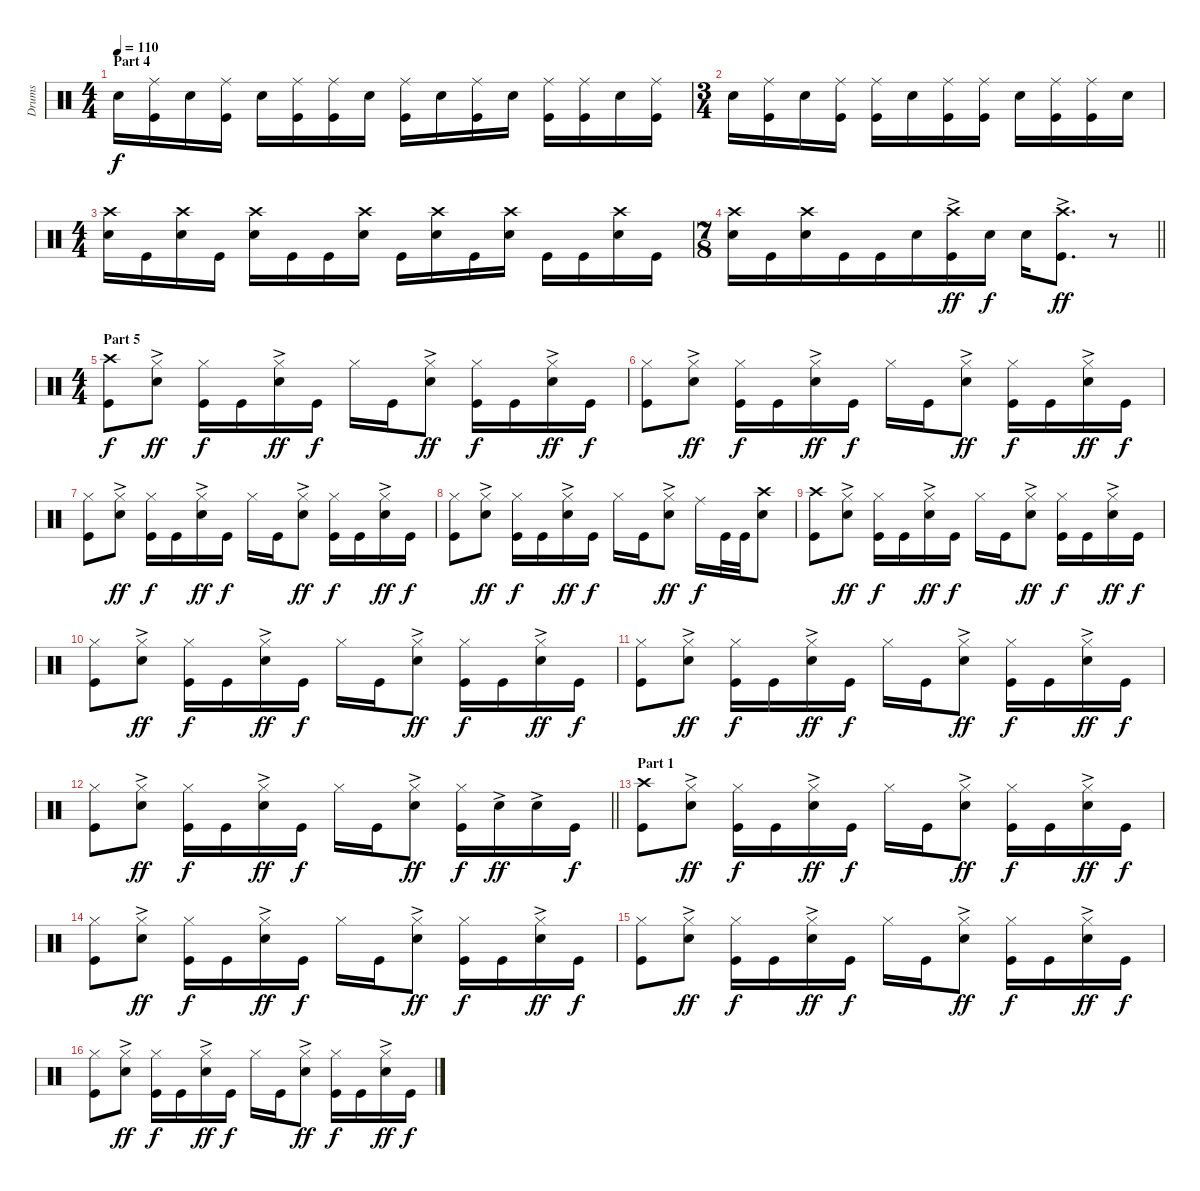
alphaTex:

\track ("Drums" "Drums") {instrument percussion}
\staff {score}
\articulation defaults
\ts (4 4)
\section ("" "Part 4")
\tempo 110
\clef neutral
\ks c "Electric Snare (hit)".16{dy f}
("Kick (hit)" "Ride (middle)").16 "Electric Snare (hit)".16 ("Kick (hit)" "Ride (middle)").16 "Electric Snare (hit)".16 ("Kick (hit)" "Ride (middle)").16 ("Kick (hit)" "Ride (middle)").16 "Electric Snare (hit)".16 ("Kick (hit)" "Ride (middle)").16 "Electric Snare (hit)".16 ("Kick (hit)" "Ride (middle)").16 "Electric Snare (hit)".16 ("Kick (hit)" "Ride (middle)").16 ("Kick (hit)" "Ride (middle)").16 "Electric Snare (hit)".16 ("Kick (hit)" "Ride (middle)").16 |
\ts (3 4)
"Electric Snare (hit)".16 ("Kick (hit)" "Ride (middle)").16 "Electric Snare (hit)".16 ("Kick (hit)" "Ride (middle)").16 ("Kick (hit)" "Ride (middle)").16 "Electric Snare (hit)".16 ("Kick (hit)" "Ride (middle)").16 ("Kick (hit)" "Ride (middle)").16 "Electric Snare (hit)".16 ("Kick (hit)" "Ride (middle)").16 ("Kick (hit)" "Ride (middle)").16 "Electric Snare (hit)".16 |
\ts (4 4)
("Electric Snare (hit)" "Crash high (hit)").16 "Kick (hit)".16 ("Crash high (hit)" "Electric Snare (hit)").16 "Kick (hit)".16 ("Electric Snare (hit)" "Crash high (hit)").16 "Kick (hit)".16 "Kick (hit)".16 ("Electric Snare (hit)" "Crash high (hit)").16 "Kick (hit)".16 ("Crash high (hit)" "Electric Snare (hit)").16 "Kick (hit)".16 ("Electric Snare (hit)" "Crash high (hit)").16 "Kick (hit)".16 "Kick (hit)".16 ("Electric Snare (hit)" "Crash high (hit)").16 "Kick (hit)".16 |
\ts (7 8)
\barLineRight lightlight
("Crash high (hit)" "Electric Snare (hit)").16 "Kick (hit)".16 ("Electric Snare (hit)" "Crash high (hit)").16 "Kick (hit)".16 "Kick (hit)".16 "Electric Snare (hit)".16 ("Kick (hit)" "Crash high (hit)"{ac}).16{dy ff} "Electric Snare (hit)".16{dy f} "Electric Snare (hit)".16 ("Kick (hit)" "Crash high (hit)"{ac}).8{d dy ff} r.8 |
\ts (4 4)
\section ("" "Part 5")
("Kick (hit)" "Crash high (hit)").8{dy f} ("Hi-Hat (closed)" "Electric Snare (hit)"{ac}).8{dy ff} ("Hi-Hat (closed)" "Kick (hit)").16{dy f} "Kick (hit)".16 ("Hi-Hat (closed)" "Electric Snare (hit)"{ac}).16{dy ff} "Kick (hit)".16{dy f} "Hi-Hat (closed)".16 "Kick (hit)".16 ("Electric Snare (hit)"{ac} "Hi-Hat (closed)").8{dy ff} ("Kick (hit)" "Hi-Hat (closed)").16{dy f} "Kick (hit)".16 ("Electric Snare (hit)"{ac} "Hi-Hat (closed)").16{dy ff} "Kick (hit)".16{dy f} |
("Kick (hit)" "Hi-Hat (closed)").8 ("Hi-Hat (closed)" "Electric Snare (hit)"{ac}).8{dy ff} ("Hi-Hat (closed)" "Kick (hit)").16{dy f} "Kick (hit)".16 ("Hi-Hat (closed)" "Electric Snare (hit)"{ac}).16{dy ff} "Kick (hit)".16{dy f} "Hi-Hat (closed)".16 "Kick (hit)".16 ("Electric Snare (hit)"{ac} "Hi-Hat (closed)").8{dy ff} ("Kick (hit)" "Hi-Hat (closed)").16{dy f} "Kick (hit)".16 ("Electric Snare (hit)"{ac} "Hi-Hat (closed)").16{dy ff} "Kick (hit)".16{dy f} |
("Kick (hit)" "Hi-Hat (closed)").8 ("Hi-Hat (closed)" "Electric Snare (hit)"{ac}).8{dy ff} ("Hi-Hat (closed)" "Kick (hit)").16{dy f} "Kick (hit)".16 ("Hi-Hat (closed)" "Electric Snare (hit)"{ac}).16{dy ff} "Kick (hit)".16{dy f} "Hi-Hat (closed)".16 "Kick (hit)".16 ("Electric Snare (hit)"{ac} "Hi-Hat (closed)").8{dy ff} ("Kick (hit)" "Hi-Hat (closed)").16{dy f} "Kick (hit)".16 ("Electric Snare (hit)"{ac} "Hi-Hat (closed)").16{dy ff} "Kick (hit)".16{dy f} |
("Kick (hit)" "Hi-Hat (closed)").8 ("Hi-Hat (closed)" "Electric Snare (hit)"{ac}).8{dy ff} ("Hi-Hat (closed)" "Kick (hit)").16{dy f} "Kick (hit)".16 ("Hi-Hat (closed)" "Electric Snare (hit)"{ac}).16{dy ff} "Kick (hit)".16{dy f} "Hi-Hat (closed)".16 "Kick (hit)".16 ("Electric Snare (hit)"{ac} "Hi-Hat (closed)").8{dy ff} "Ride (middle)".16{dy f} "Kick (hit)".32 "Kick (hit)".32 ("Electric Snare (hit)" "Crash high (hit)").8 |
("Kick (hit)" "Crash high (hit)").8 ("Hi-Hat (closed)" "Electric Snare (hit)"{ac}).8{dy ff} ("Hi-Hat (closed)" "Kick (hit)").16{dy f} "Kick (hit)".16 ("Hi-Hat (closed)" "Electric Snare (hit)"{ac}).16{dy ff} "Kick (hit)".16{dy f} "Hi-Hat (closed)".16 "Kick (hit)".16 ("Electric Snare (hit)"{ac} "Hi-Hat (closed)").8{dy ff} ("Kick (hit)" "Hi-Hat (closed)").16{dy f} "Kick (hit)".16 ("Electric Snare (hit)"{ac} "Hi-Hat (closed)").16{dy ff} "Kick (hit)".16{dy f} |
("Kick (hit)" "Hi-Hat (closed)").8 ("Hi-Hat (closed)" "Electric Snare (hit)"{ac}).8{dy ff} ("Hi-Hat (closed)" "Kick (hit)").16{dy f} "Kick (hit)".16 ("Hi-Hat (closed)" "Electric Snare (hit)"{ac}).16{dy ff} "Kick (hit)".16{dy f} "Hi-Hat (closed)".16 "Kick (hit)".16 ("Electric Snare (hit)"{ac} "Hi-Hat (closed)").8{dy ff} ("Kick (hit)" "Hi-Hat (closed)").16{dy f} "Kick (hit)".16 ("Electric Snare (hit)"{ac} "Hi-Hat (closed)").16{dy ff} "Kick (hit)".16{dy f} |
("Kick (hit)" "Hi-Hat (closed)").8 ("Hi-Hat (closed)" "Electric Snare (hit)"{ac}).8{dy ff} ("Hi-Hat (closed)" "Kick (hit)").16{dy f} "Kick (hit)".16 ("Hi-Hat (closed)" "Electric Snare (hit)"{ac}).16{dy ff} "Kick (hit)".16{dy f} "Hi-Hat (closed)".16 "Kick (hit)".16 ("Electric Snare (hit)"{ac} "Hi-Hat (closed)").8{dy ff} ("Kick (hit)" "Hi-Hat (closed)").16{dy f} "Kick (hit)".16 ("Electric Snare (hit)"{ac} "Hi-Hat (closed)").16{dy ff} "Kick (hit)".16{dy f} |
\barLineRight lightlight
("Kick (hit)" "Hi-Hat (closed)").8 ("Hi-Hat (closed)" "Electric Snare (hit)"{ac}).8{dy ff} ("Hi-Hat (closed)" "Kick (hit)").16{dy f} "Kick (hit)".16 ("Hi-Hat (closed)" "Electric Snare (hit)"{ac}).16{dy ff} "Kick (hit)".16{dy f} "Hi-Hat (closed)".16 "Kick (hit)".16 ("Electric Snare (hit)"{ac} "Hi-Hat (closed)").8{dy ff} ("Kick (hit)" "Hi-Hat (closed)").16{dy f} "Electric Snare (hit)"{ac}.16{dy ff} "Electric Snare (hit)"{ac}.16 "Kick (hit)".16{dy f} |
\section ("" "Part 1")
("Kick (hit)" "Crash high (hit)").8 ("Hi-Hat (closed)" "Electric Snare (hit)"{ac}).8{dy ff} ("Hi-Hat (closed)" "Kick (hit)").16{dy f} "Kick (hit)".16 ("Hi-Hat (closed)" "Electric Snare (hit)"{ac}).16{dy ff} "Kick (hit)".16{dy f} "Hi-Hat (closed)".16 "Kick (hit)".16 ("Electric Snare (hit)"{ac} "Hi-Hat (closed)").8{dy ff} ("Kick (hit)" "Hi-Hat (closed)").16{dy f} "Kick (hit)".16 ("Electric Snare (hit)"{ac} "Hi-Hat (closed)").16{dy ff} "Kick (hit)".16{dy f} |
("Kick (hit)" "Hi-Hat (closed)").8 ("Hi-Hat (closed)" "Electric Snare (hit)"{ac}).8{dy ff} ("Hi-Hat (closed)" "Kick (hit)").16{dy f} "Kick (hit)".16 ("Hi-Hat (closed)" "Electric Snare (hit)"{ac}).16{dy ff} "Kick (hit)".16{dy f} "Hi-Hat (closed)".16 "Kick (hit)".16 ("Electric Snare (hit)"{ac} "Hi-Hat (closed)").8{dy ff} ("Kick (hit)" "Hi-Hat (closed)").16{dy f} "Kick (hit)".16 ("Electric Snare (hit)"{ac} "Hi-Hat (closed)").16{dy ff} "Kick (hit)".16{dy f} |
("Kick (hit)" "Hi-Hat (closed)").8 ("Hi-Hat (closed)" "Electric Snare (hit)"{ac}).8{dy ff} ("Hi-Hat (closed)" "Kick (hit)").16{dy f} "Kick (hit)".16 ("Hi-Hat (closed)" "Electric Snare (hit)"{ac}).16{dy ff} "Kick (hit)".16{dy f} "Hi-Hat (closed)".16 "Kick (hit)".16 ("Electric Snare (hit)"{ac} "Hi-Hat (closed)").8{dy ff} ("Kick (hit)" "Hi-Hat (closed)").16{dy f} "Kick (hit)".16 ("Electric Snare (hit)"{ac} "Hi-Hat (closed)").16{dy ff} "Kick (hit)".16{dy f} |
("Kick (hit)" "Hi-Hat (closed)").8 ("Hi-Hat (closed)" "Electric Snare (hit)"{ac}).8{dy ff} ("Hi-Hat (closed)" "Kick (hit)").16{dy f} "Kick (hit)".16 ("Hi-Hat (closed)" "Electric Snare (hit)"{ac}).16{dy ff} "Kick (hit)".16{dy f} "Hi-Hat (closed)".16 "Kick (hit)".16 ("Electric Snare (hit)"{ac} "Hi-Hat (closed)").8{dy ff} ("Kick (hit)" "Hi-Hat (closed)").16{dy f} "Kick (hit)".16 ("Electric Snare (hit)"{ac} "Hi-Hat (closed)").16{dy ff} "Kick (hit)".16{dy f}
